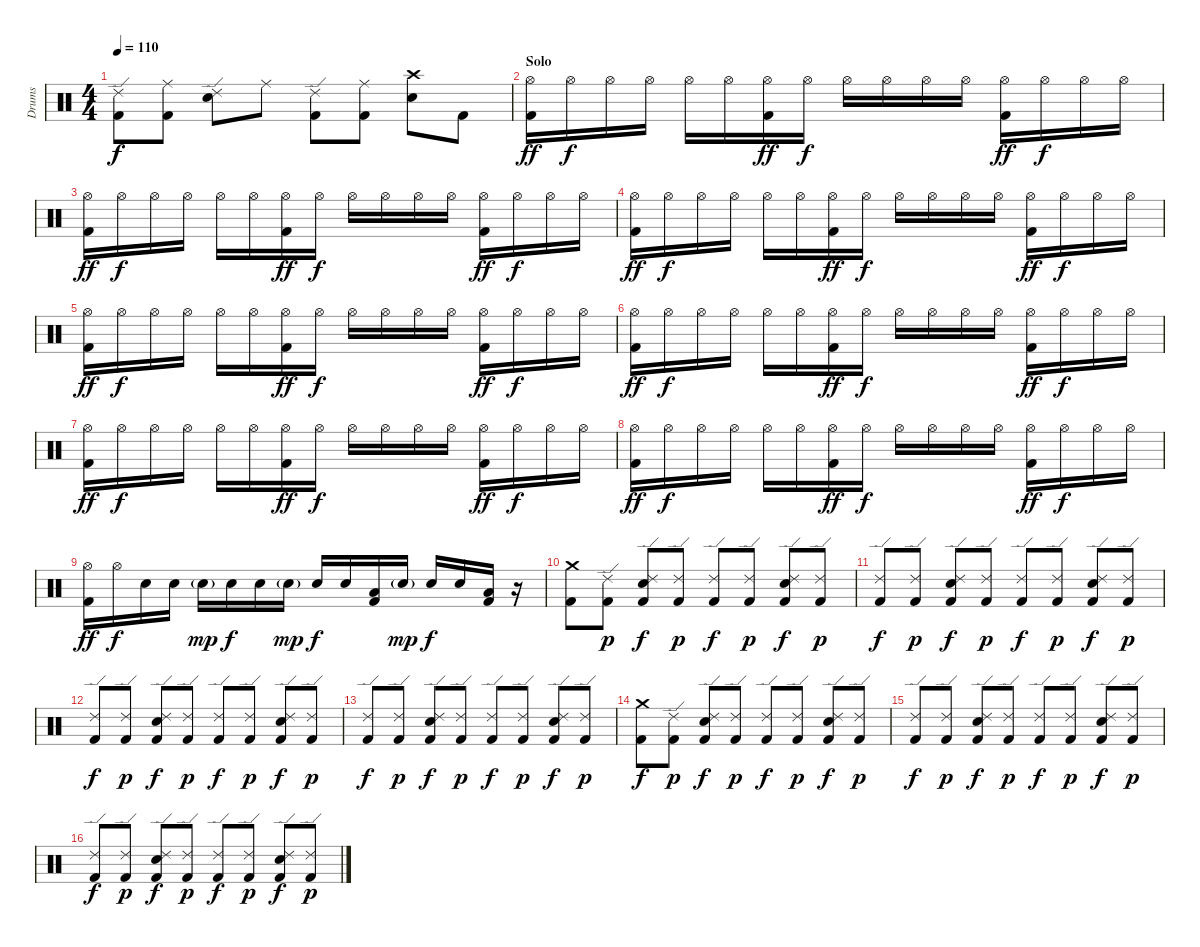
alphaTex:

\track ("Drums" "Drums") {instrument percussion}
\staff {score}
\articulation defaults
\ts (4 4)
\tempo 110
\clef neutral
\ks c
("Ride (edge) 2" "Kick (hit) 2").8{dy f} ("Ride (middle)" "Kick (hit) 2").8 ("Ride (edge) 2" "Electric Snare (hit)").8 "Ride (middle)".8 ("Ride (edge) 2" "Kick (hit) 2").8 ("Ride (middle)" "Kick (hit) 2").8 ("Crash high (hit)" "Electric Snare (hit)").8 "Kick (hit) 2".8 |
\section ("" "Solo")
("Hi-Hat (open)" "Kick (hit) 2").16{dy ff} "Hi-Hat (open)".16{dy f} "Hi-Hat (open)".16 "Hi-Hat (open)".16 "Hi-Hat (open)".16 "Hi-Hat (open)".16 ("Hi-Hat (open)" "Kick (hit) 2").16{dy ff} "Hi-Hat (open)".16{dy f} "Hi-Hat (open)".16 "Hi-Hat (open)".16 "Hi-Hat (open)".16 "Hi-Hat (open)".16 ("Hi-Hat (open)" "Kick (hit) 2").16{dy ff} "Hi-Hat (open)".16{dy f} "Hi-Hat (open)".16 "Hi-Hat (open)".16 |
("Hi-Hat (open)" "Kick (hit) 2").16{dy ff} "Hi-Hat (open)".16{dy f} "Hi-Hat (open)".16 "Hi-Hat (open)".16 "Hi-Hat (open)".16 "Hi-Hat (open)".16 ("Hi-Hat (open)" "Kick (hit) 2").16{dy ff} "Hi-Hat (open)".16{dy f} "Hi-Hat (open)".16 "Hi-Hat (open)".16 "Hi-Hat (open)".16 "Hi-Hat (open)".16 ("Hi-Hat (open)" "Kick (hit) 2").16{dy ff} "Hi-Hat (open)".16{dy f} "Hi-Hat (open)".16 "Hi-Hat (open)".16 |
("Hi-Hat (open)" "Kick (hit) 2").16{dy ff} "Hi-Hat (open)".16{dy f} "Hi-Hat (open)".16 "Hi-Hat (open)".16 "Hi-Hat (open)".16 "Hi-Hat (open)".16 ("Hi-Hat (open)" "Kick (hit) 2").16{dy ff} "Hi-Hat (open)".16{dy f} "Hi-Hat (open)".16 "Hi-Hat (open)".16 "Hi-Hat (open)".16 "Hi-Hat (open)".16 ("Hi-Hat (open)" "Kick (hit) 2").16{dy ff} "Hi-Hat (open)".16{dy f} "Hi-Hat (open)".16 "Hi-Hat (open)".16 |
("Hi-Hat (open)" "Kick (hit) 2").16{dy ff} "Hi-Hat (open)".16{dy f} "Hi-Hat (open)".16 "Hi-Hat (open)".16 "Hi-Hat (open)".16 "Hi-Hat (open)".16 ("Hi-Hat (open)" "Kick (hit) 2").16{dy ff} "Hi-Hat (open)".16{dy f} "Hi-Hat (open)".16 "Hi-Hat (open)".16 "Hi-Hat (open)".16 "Hi-Hat (open)".16 ("Hi-Hat (open)" "Kick (hit) 2").16{dy ff} "Hi-Hat (open)".16{dy f} "Hi-Hat (open)".16 "Hi-Hat (open)".16 |
("Hi-Hat (open)" "Kick (hit) 2").16{dy ff} "Hi-Hat (open)".16{dy f} "Hi-Hat (open)".16 "Hi-Hat (open)".16 "Hi-Hat (open)".16 "Hi-Hat (open)".16 ("Hi-Hat (open)" "Kick (hit) 2").16{dy ff} "Hi-Hat (open)".16{dy f} "Hi-Hat (open)".16 "Hi-Hat (open)".16 "Hi-Hat (open)".16 "Hi-Hat (open)".16 ("Hi-Hat (open)" "Kick (hit) 2").16{dy ff} "Hi-Hat (open)".16{dy f} "Hi-Hat (open)".16 "Hi-Hat (open)".16 |
("Hi-Hat (open)" "Kick (hit) 2").16{dy ff} "Hi-Hat (open)".16{dy f} "Hi-Hat (open)".16 "Hi-Hat (open)".16 "Hi-Hat (open)".16 "Hi-Hat (open)".16 ("Hi-Hat (open)" "Kick (hit) 2").16{dy ff} "Hi-Hat (open)".16{dy f} "Hi-Hat (open)".16 "Hi-Hat (open)".16 "Hi-Hat (open)".16 "Hi-Hat (open)".16 ("Hi-Hat (open)" "Kick (hit) 2").16{dy ff} "Hi-Hat (open)".16{dy f} "Hi-Hat (open)".16 "Hi-Hat (open)".16 |
("Hi-Hat (open)" "Kick (hit) 2").16{dy ff} "Hi-Hat (open)".16{dy f} "Hi-Hat (open)".16 "Hi-Hat (open)".16 "Hi-Hat (open)".16 "Hi-Hat (open)".16 ("Hi-Hat (open)" "Kick (hit) 2").16{dy ff} "Hi-Hat (open)".16{dy f} "Hi-Hat (open)".16 "Hi-Hat (open)".16 "Hi-Hat (open)".16 "Hi-Hat (open)".16 ("Hi-Hat (open)" "Kick (hit) 2").16{dy ff} "Hi-Hat (open)".16{dy f} "Hi-Hat (open)".16 "Hi-Hat (open)".16 |
("Hi-Hat (open)" "Kick (hit) 2").16{dy ff} "Hi-Hat (open)".16{dy f} "Electric Snare (hit)".16 "Electric Snare (hit)".16 "Electric Snare (hit)"{g}.16{dy mp} "Electric Snare (hit)".16{dy f} "Electric Snare (hit)".16 "Electric Snare (hit)"{g}.16{dy mp} "Electric Snare (hit)".16{dy f} "Electric Snare (hit)".16 ("Low Floor Tom (hit)" "Kick (hit) 2").16 "Electric Snare (hit)"{g}.16{dy mp} "Electric Snare (hit)".16{dy f} "Electric Snare (hit)".16 ("Low Floor Tom (hit)" "Kick (hit) 2").16 r.16 |
("Crash medium (hit)" "Kick (hit) 2").8 ("Ride (edge) 2" "Kick (hit) 2").8{dy p} ("Ride (edge) 2" "Electric Snare (hit)" "Kick (hit) 2").8{dy f} ("Ride (edge) 2" "Kick (hit) 2").8{dy p} ("Ride (edge) 2" "Kick (hit) 2").8{dy f} ("Ride (edge) 2" "Kick (hit) 2").8{dy p} ("Ride (edge) 2" "Electric Snare (hit)" "Kick (hit) 2").8{dy f} ("Ride (edge) 2" "Kick (hit) 2").8{dy p} |
("Ride (edge) 2" "Kick (hit) 2").8{dy f} ("Ride (edge) 2" "Kick (hit) 2").8{dy p} ("Ride (edge) 2" "Electric Snare (hit)" "Kick (hit) 2").8{dy f} ("Ride (edge) 2" "Kick (hit) 2").8{dy p} ("Ride (edge) 2" "Kick (hit) 2").8{dy f} ("Ride (edge) 2" "Kick (hit) 2").8{dy p} ("Ride (edge) 2" "Electric Snare (hit)" "Kick (hit) 2").8{dy f} ("Ride (edge) 2" "Kick (hit) 2").8{dy p} |
("Ride (edge) 2" "Kick (hit) 2").8{dy f} ("Ride (edge) 2" "Kick (hit) 2").8{dy p} ("Ride (edge) 2" "Electric Snare (hit)" "Kick (hit) 2").8{dy f} ("Ride (edge) 2" "Kick (hit) 2").8{dy p} ("Ride (edge) 2" "Kick (hit) 2").8{dy f} ("Ride (edge) 2" "Kick (hit) 2").8{dy p} ("Ride (edge) 2" "Electric Snare (hit)" "Kick (hit) 2").8{dy f} ("Ride (edge) 2" "Kick (hit) 2").8{dy p} |
("Ride (edge) 2" "Kick (hit) 2").8{dy f} ("Ride (edge) 2" "Kick (hit) 2").8{dy p} ("Ride (edge) 2" "Electric Snare (hit)" "Kick (hit) 2").8{dy f} ("Ride (edge) 2" "Kick (hit) 2").8{dy p} ("Ride (edge) 2" "Kick (hit) 2").8{dy f} ("Ride (edge) 2" "Kick (hit) 2").8{dy p} ("Ride (edge) 2" "Electric Snare (hit)" "Kick (hit) 2").8{dy f} ("Ride (edge) 2" "Kick (hit) 2").8{dy p} |
("Crash medium (hit)" "Kick (hit) 2").8{dy f} ("Ride (edge) 2" "Kick (hit) 2").8{dy p} ("Ride (edge) 2" "Electric Snare (hit)" "Kick (hit) 2").8{dy f} ("Ride (edge) 2" "Kick (hit) 2").8{dy p} ("Ride (edge) 2" "Kick (hit) 2").8{dy f} ("Ride (edge) 2" "Kick (hit) 2").8{dy p} ("Ride (edge) 2" "Electric Snare (hit)" "Kick (hit) 2").8{dy f} ("Ride (edge) 2" "Kick (hit) 2").8{dy p} |
("Ride (edge) 2" "Kick (hit) 2").8{dy f} ("Ride (edge) 2" "Kick (hit) 2").8{dy p} ("Ride (edge) 2" "Electric Snare (hit)" "Kick (hit) 2").8{dy f} ("Ride (edge) 2" "Kick (hit) 2").8{dy p} ("Ride (edge) 2" "Kick (hit) 2").8{dy f} ("Ride (edge) 2" "Kick (hit) 2").8{dy p} ("Ride (edge) 2" "Electric Snare (hit)" "Kick (hit) 2").8{dy f} ("Ride (edge) 2" "Kick (hit) 2").8{dy p} |
("Ride (edge) 2" "Kick (hit) 2").8{dy f} ("Ride (edge) 2" "Kick (hit) 2").8{dy p} ("Ride (edge) 2" "Electric Snare (hit)" "Kick (hit) 2").8{dy f} ("Ride (edge) 2" "Kick (hit) 2").8{dy p} ("Ride (edge) 2" "Kick (hit) 2").8{dy f} ("Ride (edge) 2" "Kick (hit) 2").8{dy p} ("Ride (edge) 2" "Electric Snare (hit)" "Kick (hit) 2").8{dy f} ("Ride (edge) 2" "Kick (hit) 2").8{dy p}
